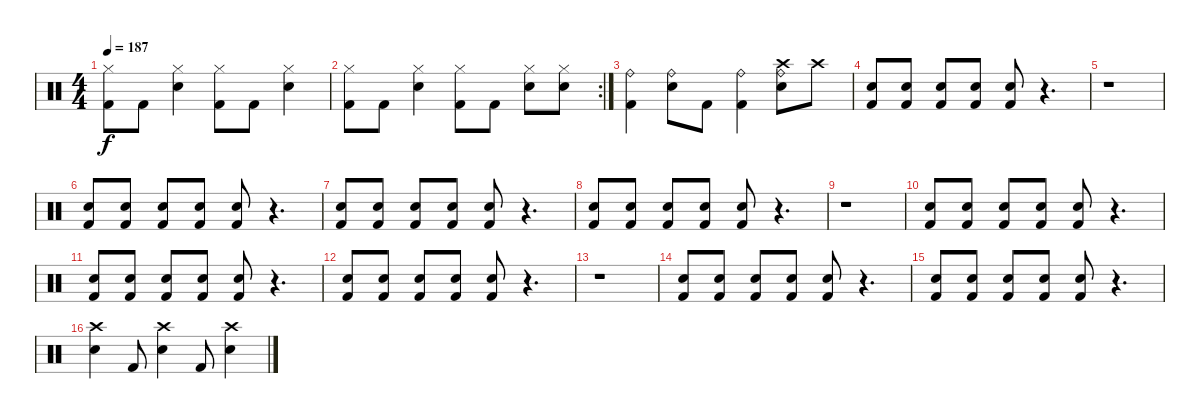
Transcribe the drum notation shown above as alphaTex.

\track "" {instrument percussion}
\staff {score}
\articulation defaults
\ts (4 4)
\tempo 187
\clef neutral
\ks c
("Hi-Hat (closed)" "Kick (hit) 2").8{dy f} "Kick (hit) 2".8 ("Hi-Hat (closed)" "Electric Snare (hit)").4 ("Hi-Hat (closed)" "Kick (hit) 2").8 "Kick (hit) 2".8 ("Hi-Hat (closed)" "Electric Snare (hit)").4 |
\rc 2
("Hi-Hat (closed)" "Kick (hit) 2").8 "Kick (hit) 2".8 ("Hi-Hat (closed)" "Electric Snare (hit)").4 ("Hi-Hat (closed)" "Kick (hit) 2").8 "Kick (hit) 2".8 ("Hi-Hat (closed)" "Electric Snare (hit)").8 ("Hi-Hat (closed)" "Electric Snare (hit)").8 |
("Ride (bell)" "Kick (hit) 2").4 ("Ride (bell)" "Electric Snare (hit)").8 "Kick (hit) 2".8 ("Ride (bell)" "Kick (hit) 2").4 ("Ride (bell)" "Crash high (hit)" "Electric Snare (hit)").8 "Crash high (hit)".8 |
("Electric Snare (hit)" "Kick (hit) 2").8 ("Electric Snare (hit)" "Kick (hit) 2").8 ("Electric Snare (hit)" "Kick (hit) 2").8 ("Electric Snare (hit)" "Kick (hit) 2").8 ("Electric Snare (hit)" "Kick (hit) 2").8 r.4{d} |
r.1 |
("Electric Snare (hit)" "Kick (hit) 2").8 ("Electric Snare (hit)" "Kick (hit) 2").8 ("Electric Snare (hit)" "Kick (hit) 2").8 ("Electric Snare (hit)" "Kick (hit) 2").8 ("Electric Snare (hit)" "Kick (hit) 2").8 r.4{d} |
("Electric Snare (hit)" "Kick (hit) 2").8 ("Electric Snare (hit)" "Kick (hit) 2").8 ("Electric Snare (hit)" "Kick (hit) 2").8 ("Electric Snare (hit)" "Kick (hit) 2").8 ("Electric Snare (hit)" "Kick (hit) 2").8 r.4{d} |
("Electric Snare (hit)" "Kick (hit) 2").8 ("Electric Snare (hit)" "Kick (hit) 2").8 ("Electric Snare (hit)" "Kick (hit) 2").8 ("Electric Snare (hit)" "Kick (hit) 2").8 ("Electric Snare (hit)" "Kick (hit) 2").8 r.4{d} |
r.1 |
("Electric Snare (hit)" "Kick (hit) 2").8 ("Electric Snare (hit)" "Kick (hit) 2").8 ("Electric Snare (hit)" "Kick (hit) 2").8 ("Electric Snare (hit)" "Kick (hit) 2").8 ("Electric Snare (hit)" "Kick (hit) 2").8 r.4{d} |
("Electric Snare (hit)" "Kick (hit) 2").8 ("Electric Snare (hit)" "Kick (hit) 2").8 ("Electric Snare (hit)" "Kick (hit) 2").8 ("Electric Snare (hit)" "Kick (hit) 2").8 ("Electric Snare (hit)" "Kick (hit) 2").8 r.4{d} |
("Electric Snare (hit)" "Kick (hit) 2").8 ("Electric Snare (hit)" "Kick (hit) 2").8 ("Electric Snare (hit)" "Kick (hit) 2").8 ("Electric Snare (hit)" "Kick (hit) 2").8 ("Electric Snare (hit)" "Kick (hit) 2").8 r.4{d} |
r.1 |
("Electric Snare (hit)" "Kick (hit) 2").8 ("Electric Snare (hit)" "Kick (hit) 2").8 ("Electric Snare (hit)" "Kick (hit) 2").8 ("Electric Snare (hit)" "Kick (hit) 2").8 ("Electric Snare (hit)" "Kick (hit) 2").8 r.4{d} |
("Electric Snare (hit)" "Kick (hit) 2").8 ("Electric Snare (hit)" "Kick (hit) 2").8 ("Electric Snare (hit)" "Kick (hit) 2").8 ("Electric Snare (hit)" "Kick (hit) 2").8 ("Electric Snare (hit)" "Kick (hit) 2").8 r.4{d} |
("Crash high (hit)" "Electric Snare (hit)").4 "Kick (hit) 2".8 ("Crash high (hit)" "Electric Snare (hit)").4 "Kick (hit) 2".8 ("Crash high (hit)" "Electric Snare (hit)").4
